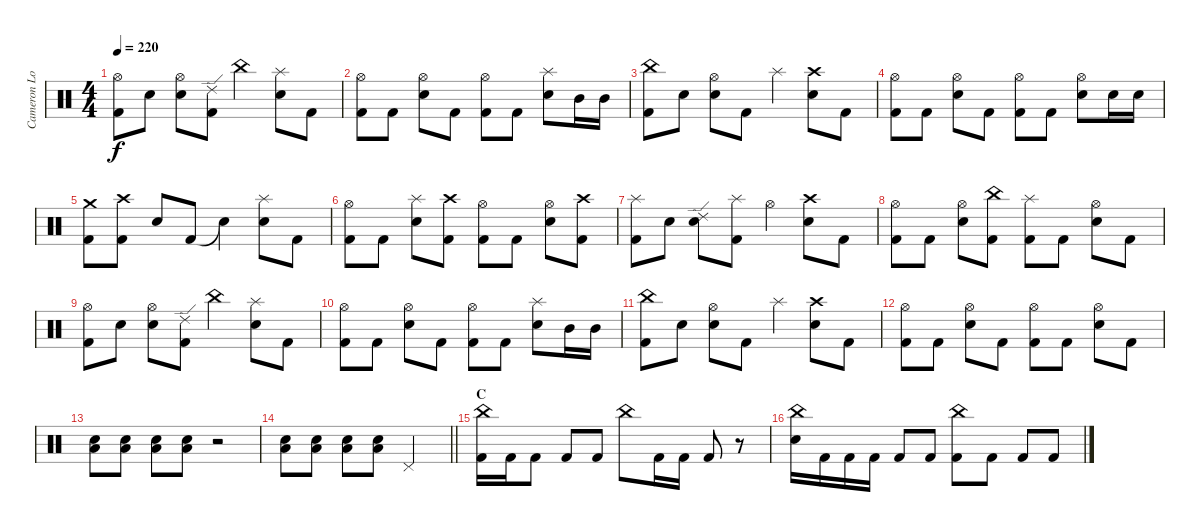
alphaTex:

\track ("Cameron Losch - Drums" "Cameron Lo") {instrument percussion}
\staff {score}
\articulation defaults
\ts (4 4)
\tempo 220
\clef neutral
\ks c
("Hi-Hat (open)" "Kick (hit) 2").8{dy f} "Electric Snare (hit)".8 ("Hi-Hat (open)" "Electric Snare (hit)").8 ("Ride (edge) 2" "Kick (hit) 2").8 "China (hit)".4 ("Splash (hit)" "Electric Snare (hit)").8 "Kick (hit) 2".8 |
("Hi-Hat (open)" "Kick (hit) 2").8 "Kick (hit) 2".8 ("Hi-Hat (open)" "Electric Snare (hit)").8 "Kick (hit) 2".8 ("Hi-Hat (open)" "Kick (hit) 2").8 "Kick (hit) 2".8 ("Splash (hit)" "Electric Snare (hit)").8 "Mid Tom (hit)".16 "Mid Tom (hit)".16 |
("China (hit)" "Kick (hit) 2").8 "Electric Snare (hit)".8 ("Hi-Hat (open)" "Electric Snare (hit)").8 "Kick (hit) 2".8 "Splash (hit)".4 ("Crash high (hit)" "Electric Snare (hit)").8 "Kick (hit) 2".8 |
("Hi-Hat (open)" "Kick (hit) 2").8 "Kick (hit) 2".8 ("Hi-Hat (open)" "Electric Snare (hit)").8 "Kick (hit) 2".8 ("Hi-Hat (open)" "Kick (hit) 2").8 "Kick (hit) 2".8 ("Hi-Hat (open)" "Electric Snare (hit)").8 "Electric Snare (hit)".16 "Electric Snare (hit)".16 |
("Kick (hit) 2" "Crash medium (hit)").8 ("Kick (hit) 2" "Crash high (hit)").8 "Electric Snare (hit)".8 "Kick (hit) 2".8 "Snare (hit)"{t}.4 ("Electric Snare (hit)" "Splash (hit)").8 "Kick (hit) 2".8 |
("Kick (hit) 2" "Hi-Hat (open)").8 "Kick (hit) 2".8 ("Electric Snare (hit)" "Splash (hit)").8 ("Kick (hit) 2" "Crash high (hit)").8 ("Kick (hit) 2" "Hi-Hat (open)").8 "Kick (hit) 2".8 ("Electric Snare (hit)" "Hi-Hat (open)").8 ("Kick (hit) 2" "Crash high (hit)").8 |
("Kick (hit) 2" "Splash (hit)").8 "Electric Snare (hit)".8 ("Electric Snare (hit)" "Ride (edge) 2").8 ("Kick (hit) 2" "Splash (hit)").8 "Hi-Hat (open)".4 ("Crash high (hit)" "Electric Snare (hit)").8 "Kick (hit) 2".8 |
("Hi-Hat (open)" "Kick (hit) 2").8 "Kick (hit) 2".8 ("Hi-Hat (open)" "Electric Snare (hit)").8 ("China (hit)" "Kick (hit) 2").8 ("Splash (hit)" "Kick (hit) 2").8 "Kick (hit) 2".8 ("Hi-Hat (open)" "Electric Snare (hit)").8 "Kick (hit) 2".8 |
("Hi-Hat (open)" "Kick (hit) 2").8 "Electric Snare (hit)".8 ("Hi-Hat (open)" "Electric Snare (hit)").8 ("Ride (edge) 2" "Kick (hit) 2").8 "China (hit)".4 ("Splash (hit)" "Electric Snare (hit)").8 "Kick (hit) 2".8 |
("Hi-Hat (open)" "Kick (hit) 2").8 "Kick (hit) 2".8 ("Hi-Hat (open)" "Electric Snare (hit)").8 "Kick (hit) 2".8 ("Hi-Hat (open)" "Kick (hit) 2").8 "Kick (hit) 2".8 ("Splash (hit)" "Electric Snare (hit)").8 "Mid Tom (hit)".16 "Mid Tom (hit)".16 |
("China (hit)" "Kick (hit) 2").8 "Electric Snare (hit)".8 ("Hi-Hat (open)" "Electric Snare (hit)").8 "Kick (hit) 2".8 "Splash (hit)".4 ("Crash high (hit)" "Electric Snare (hit)").8 "Kick (hit) 2".8 |
("Hi-Hat (open)" "Kick (hit) 2").8 "Kick (hit) 2".8 ("Hi-Hat (open)" "Electric Snare (hit)").8 "Kick (hit) 2".8 ("Hi-Hat (open)" "Kick (hit) 2").8 "Kick (hit) 2".8 ("Hi-Hat (open)" "Electric Snare (hit)").8 "Kick (hit) 2".8 |
("Electric Snare (hit)" "Low Floor Tom (hit)").8 ("Electric Snare (hit)" "Low Floor Tom (hit)").8 ("Electric Snare (hit)" "Low Floor Tom (hit)").8 ("Electric Snare (hit)" "Low Floor Tom (hit)").8 r.2 |
\barLineRight lightlight
("Electric Snare (hit)" "Low Floor Tom (hit)").8 ("Electric Snare (hit)" "Low Floor Tom (hit)").8 ("Electric Snare (hit)" "Low Floor Tom (hit)").8 ("Electric Snare (hit)" "Low Floor Tom (hit)").8 "Pedal Hi-Hat (hit)".2 |
\section ("" "C")
("China (hit)" "Kick (hit) 2").16 "Kick (hit) 2".16 "Kick (hit) 2".8 "Kick (hit) 2".8 "Kick (hit) 2".8 "China (hit)".8 "Kick (hit) 2".16 "Kick (hit) 2".16 "Kick (hit) 2".8 r.8 |
("China (hit)" "Electric Snare (hit)").16 "Kick (hit) 2".16 "Kick (hit) 2".16 "Kick (hit) 2".16 "Kick (hit) 2".8 "Kick (hit) 2".8 ("China (hit)" "Kick (hit) 2").8 "Kick (hit) 2".8 "Kick (hit) 2".8 "Kick (hit) 2".8
